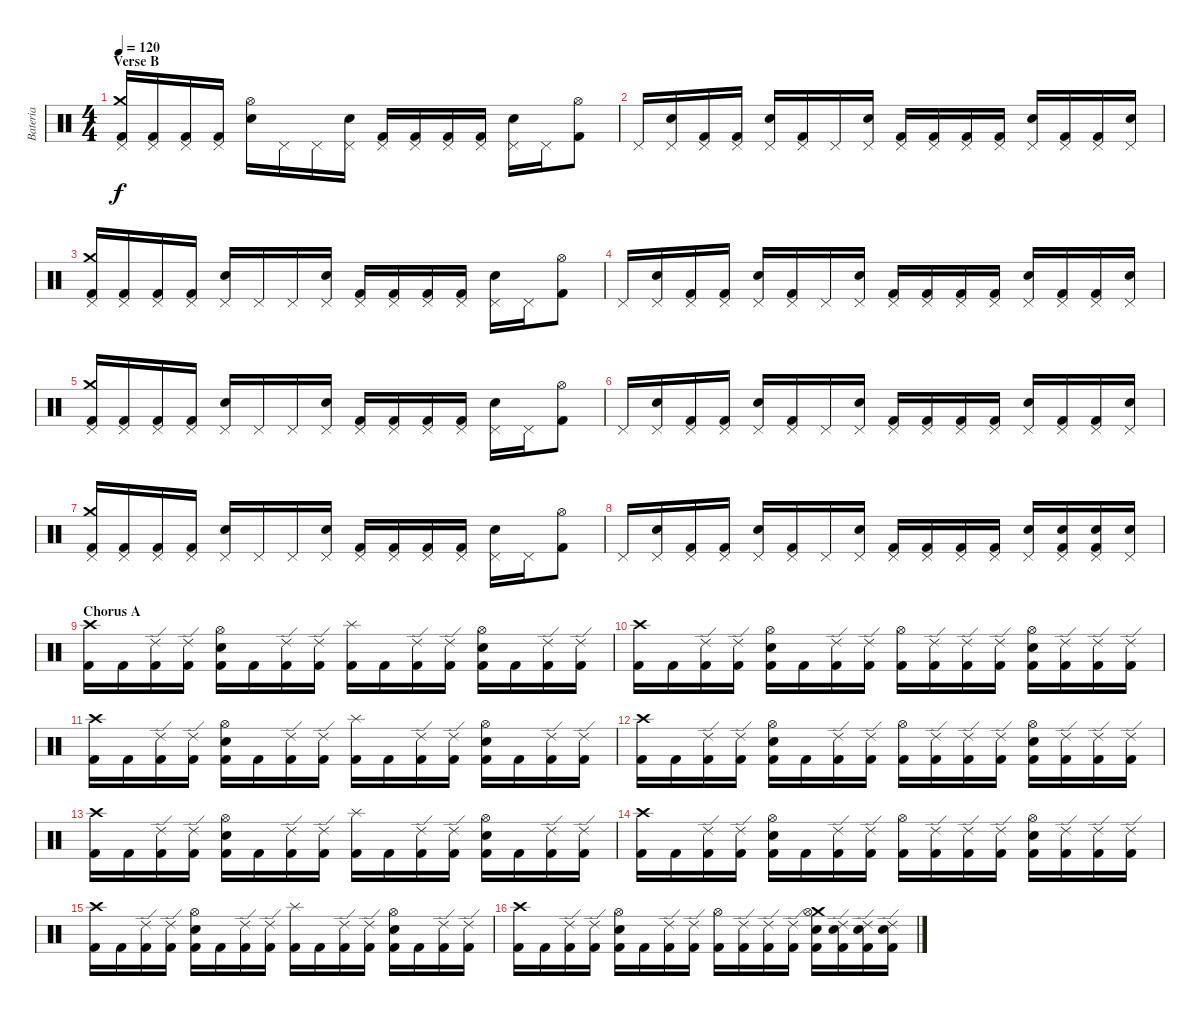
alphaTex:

\track ("Bateria" "Bateria") {instrument percussion}
\staff {score}
\articulation defaults
\ts (4 4)
\section ("" "Verse B")
\tempo 120
\clef neutral
\ks c
("Kick (hit) 2" "Crash medium (hit)" "Pedal Hi-Hat (hit)").16{dy f} ("Kick (hit) 2" "Pedal Hi-Hat (hit)").16 ("Kick (hit) 2" "Pedal Hi-Hat (hit)").16 ("Kick (hit) 2" "Pedal Hi-Hat (hit)").16 ("Snare (hit) 2" "Hi-Hat (open)").16 "Pedal Hi-Hat (hit)".16 "Pedal Hi-Hat (hit)".16 ("Snare (hit) 2" "Pedal Hi-Hat (hit)").16 ("Kick (hit) 2" "Pedal Hi-Hat (hit)").16 ("Kick (hit) 2" "Pedal Hi-Hat (hit)").16 ("Kick (hit) 2" "Pedal Hi-Hat (hit)").16 ("Kick (hit) 2" "Pedal Hi-Hat (hit)").16 ("Snare (hit) 2" "Pedal Hi-Hat (hit)").16 "Pedal Hi-Hat (hit)".16 ("Kick (hit) 2" "Hi-Hat (open)").8 |
"Pedal Hi-Hat (hit)".16 ("Snare (hit) 2" "Pedal Hi-Hat (hit)").16 ("Kick (hit) 2" "Pedal Hi-Hat (hit)").16 ("Kick (hit) 2" "Pedal Hi-Hat (hit)").16 ("Snare (hit) 2" "Pedal Hi-Hat (hit)").16 ("Kick (hit) 2" "Pedal Hi-Hat (hit)").16 "Pedal Hi-Hat (hit)".16 ("Snare (hit) 2" "Pedal Hi-Hat (hit)").16 ("Kick (hit) 2" "Pedal Hi-Hat (hit)").16 ("Kick (hit) 2" "Pedal Hi-Hat (hit)").16 ("Kick (hit) 2" "Pedal Hi-Hat (hit)").16 ("Kick (hit) 2" "Pedal Hi-Hat (hit)").16 ("Snare (hit) 2" "Pedal Hi-Hat (hit)").16 ("Kick (hit) 2" "Pedal Hi-Hat (hit)").16 ("Kick (hit) 2" "Pedal Hi-Hat (hit)").16 ("Snare (hit) 2" "Pedal Hi-Hat (hit)").16 |
("Kick (hit) 2" "Crash medium (hit)" "Pedal Hi-Hat (hit)").16 ("Kick (hit) 2" "Pedal Hi-Hat (hit)").16 ("Kick (hit) 2" "Pedal Hi-Hat (hit)").16 ("Kick (hit) 2" "Pedal Hi-Hat (hit)").16 ("Snare (hit) 2" "Pedal Hi-Hat (hit)").16 "Pedal Hi-Hat (hit)".16 "Pedal Hi-Hat (hit)".16 ("Snare (hit) 2" "Pedal Hi-Hat (hit)").16 ("Kick (hit) 2" "Pedal Hi-Hat (hit)").16 ("Kick (hit) 2" "Pedal Hi-Hat (hit)").16 ("Kick (hit) 2" "Pedal Hi-Hat (hit)").16 ("Kick (hit) 2" "Pedal Hi-Hat (hit)").16 ("Snare (hit) 2" "Pedal Hi-Hat (hit)").16 "Pedal Hi-Hat (hit)".16 ("Kick (hit) 2" "Hi-Hat (open)").8 |
"Pedal Hi-Hat (hit)".16 ("Snare (hit) 2" "Pedal Hi-Hat (hit)").16 ("Kick (hit) 2" "Pedal Hi-Hat (hit)").16 ("Kick (hit) 2" "Pedal Hi-Hat (hit)").16 ("Snare (hit) 2" "Pedal Hi-Hat (hit)").16 ("Kick (hit) 2" "Pedal Hi-Hat (hit)").16 "Pedal Hi-Hat (hit)".16 ("Snare (hit) 2" "Pedal Hi-Hat (hit)").16 ("Kick (hit) 2" "Pedal Hi-Hat (hit)").16 ("Kick (hit) 2" "Pedal Hi-Hat (hit)").16 ("Kick (hit) 2" "Pedal Hi-Hat (hit)").16 ("Kick (hit) 2" "Pedal Hi-Hat (hit)").16 ("Snare (hit) 2" "Pedal Hi-Hat (hit)").16 ("Kick (hit) 2" "Pedal Hi-Hat (hit)").16 ("Kick (hit) 2" "Pedal Hi-Hat (hit)").16 ("Snare (hit) 2" "Pedal Hi-Hat (hit)").16 |
("Kick (hit) 2" "Crash medium (hit)" "Pedal Hi-Hat (hit)").16 ("Kick (hit) 2" "Pedal Hi-Hat (hit)").16 ("Kick (hit) 2" "Pedal Hi-Hat (hit)").16 ("Kick (hit) 2" "Pedal Hi-Hat (hit)").16 ("Snare (hit) 2" "Pedal Hi-Hat (hit)").16 "Pedal Hi-Hat (hit)".16 "Pedal Hi-Hat (hit)".16 ("Snare (hit) 2" "Pedal Hi-Hat (hit)").16 ("Kick (hit) 2" "Pedal Hi-Hat (hit)").16 ("Kick (hit) 2" "Pedal Hi-Hat (hit)").16 ("Kick (hit) 2" "Pedal Hi-Hat (hit)").16 ("Kick (hit) 2" "Pedal Hi-Hat (hit)").16 ("Snare (hit) 2" "Pedal Hi-Hat (hit)").16 "Pedal Hi-Hat (hit)".16 ("Kick (hit) 2" "Hi-Hat (open)").8 |
"Pedal Hi-Hat (hit)".16 ("Snare (hit) 2" "Pedal Hi-Hat (hit)").16 ("Kick (hit) 2" "Pedal Hi-Hat (hit)").16 ("Kick (hit) 2" "Pedal Hi-Hat (hit)").16 ("Snare (hit) 2" "Pedal Hi-Hat (hit)").16 ("Kick (hit) 2" "Pedal Hi-Hat (hit)").16 "Pedal Hi-Hat (hit)".16 ("Snare (hit) 2" "Pedal Hi-Hat (hit)").16 ("Kick (hit) 2" "Pedal Hi-Hat (hit)").16 ("Kick (hit) 2" "Pedal Hi-Hat (hit)").16 ("Kick (hit) 2" "Pedal Hi-Hat (hit)").16 ("Kick (hit) 2" "Pedal Hi-Hat (hit)").16 ("Snare (hit) 2" "Pedal Hi-Hat (hit)").16 ("Kick (hit) 2" "Pedal Hi-Hat (hit)").16 ("Kick (hit) 2" "Pedal Hi-Hat (hit)").16 ("Snare (hit) 2" "Pedal Hi-Hat (hit)").16 |
("Kick (hit) 2" "Crash medium (hit)" "Pedal Hi-Hat (hit)").16 ("Kick (hit) 2" "Pedal Hi-Hat (hit)").16 ("Kick (hit) 2" "Pedal Hi-Hat (hit)").16 ("Kick (hit) 2" "Pedal Hi-Hat (hit)").16 ("Snare (hit) 2" "Pedal Hi-Hat (hit)").16 "Pedal Hi-Hat (hit)".16 "Pedal Hi-Hat (hit)".16 ("Snare (hit) 2" "Pedal Hi-Hat (hit)").16 ("Kick (hit) 2" "Pedal Hi-Hat (hit)").16 ("Kick (hit) 2" "Pedal Hi-Hat (hit)").16 ("Kick (hit) 2" "Pedal Hi-Hat (hit)").16 ("Kick (hit) 2" "Pedal Hi-Hat (hit)").16 ("Snare (hit) 2" "Pedal Hi-Hat (hit)").16 "Pedal Hi-Hat (hit)".16 ("Kick (hit) 2" "Hi-Hat (open)").8 |
"Pedal Hi-Hat (hit)".16 ("Snare (hit) 2" "Pedal Hi-Hat (hit)").16 ("Kick (hit) 2" "Pedal Hi-Hat (hit)").16 ("Kick (hit) 2" "Pedal Hi-Hat (hit)").16 ("Snare (hit) 2" "Pedal Hi-Hat (hit)").16 ("Kick (hit) 2" "Pedal Hi-Hat (hit)").16 "Pedal Hi-Hat (hit)".16 ("Snare (hit) 2" "Pedal Hi-Hat (hit)").16 ("Kick (hit) 2" "Pedal Hi-Hat (hit)").16 ("Kick (hit) 2" "Pedal Hi-Hat (hit)").16 ("Kick (hit) 2" "Pedal Hi-Hat (hit)").16 ("Kick (hit) 2" "Pedal Hi-Hat (hit)").16 ("Snare (hit) 2" "Pedal Hi-Hat (hit)").16 ("Kick (hit) 2" "Snare (hit) 2" "Pedal Hi-Hat (hit)").16 ("Kick (hit) 2" "Snare (hit) 2" "Pedal Hi-Hat (hit)").16 ("Snare (hit) 2" "Pedal Hi-Hat (hit)").16 |
\section ("" "Chorus A")
("Kick (hit) 2" "Crash high (hit)").16 "Kick (hit) 2".16 ("Kick (hit) 2" "Ride (edge) 2").16 ("Kick (hit) 2" "Ride (edge) 2").16 ("Kick (hit) 2" "Snare (hit) 2" "Hi-Hat (open)").16 "Kick (hit) 2".16 ("Kick (hit) 2" "Ride (edge) 2").16 ("Kick (hit) 2" "Ride (edge) 2").16 ("Kick (hit) 2" "Splash (hit)").16 "Kick (hit) 2".16 ("Kick (hit) 2" "Ride (edge) 2").16 ("Kick (hit) 2" "Ride (edge) 2").16 ("Kick (hit) 2" "Snare (hit) 2" "Hi-Hat (open)").16 "Kick (hit) 2".16 ("Kick (hit) 2" "Ride (edge) 2").16 ("Kick (hit) 2" "Ride (edge) 2").16 |
("Kick (hit) 2" "Crash high (hit)").16 "Kick (hit) 2".16 ("Kick (hit) 2" "Ride (edge) 2").16 ("Kick (hit) 2" "Ride (edge) 2").16 ("Kick (hit) 2" "Snare (hit) 2" "Hi-Hat (open)").16 "Kick (hit) 2".16 ("Kick (hit) 2" "Ride (edge) 2").16 ("Kick (hit) 2" "Ride (edge) 2").16 ("Kick (hit) 2" "Hi-Hat (open)").16 ("Kick (hit) 2" "Ride (edge) 2").16 ("Kick (hit) 2" "Ride (edge) 2").16 ("Kick (hit) 2" "Ride (edge) 2").16 ("Kick (hit) 2" "Snare (hit) 2" "Hi-Hat (open)").16 ("Kick (hit) 2" "Ride (edge) 2").16 ("Kick (hit) 2" "Ride (edge) 2").16 ("Kick (hit) 2" "Ride (edge) 2").16 |
("Kick (hit) 2" "Crash high (hit)").16 "Kick (hit) 2".16 ("Kick (hit) 2" "Ride (edge) 2").16 ("Kick (hit) 2" "Ride (edge) 2").16 ("Kick (hit) 2" "Snare (hit) 2" "Hi-Hat (open)").16 "Kick (hit) 2".16 ("Kick (hit) 2" "Ride (edge) 2").16 ("Kick (hit) 2" "Ride (edge) 2").16 ("Kick (hit) 2" "Splash (hit)").16 "Kick (hit) 2".16 ("Kick (hit) 2" "Ride (edge) 2").16 ("Kick (hit) 2" "Ride (edge) 2").16 ("Kick (hit) 2" "Snare (hit) 2" "Hi-Hat (open)").16 "Kick (hit) 2".16 ("Kick (hit) 2" "Ride (edge) 2").16 ("Kick (hit) 2" "Ride (edge) 2").16 |
("Kick (hit) 2" "Crash high (hit)").16 "Kick (hit) 2".16 ("Kick (hit) 2" "Ride (edge) 2").16 ("Kick (hit) 2" "Ride (edge) 2").16 ("Kick (hit) 2" "Snare (hit) 2" "Hi-Hat (open)").16 "Kick (hit) 2".16 ("Kick (hit) 2" "Ride (edge) 2").16 ("Kick (hit) 2" "Ride (edge) 2").16 ("Kick (hit) 2" "Hi-Hat (open)").16 ("Kick (hit) 2" "Ride (edge) 2").16 ("Kick (hit) 2" "Ride (edge) 2").16 ("Kick (hit) 2" "Ride (edge) 2").16 ("Kick (hit) 2" "Snare (hit) 2" "Hi-Hat (open)").16 ("Kick (hit) 2" "Ride (edge) 2").16 ("Kick (hit) 2" "Ride (edge) 2").16 ("Kick (hit) 2" "Ride (edge) 2").16 |
("Kick (hit) 2" "Crash high (hit)").16 "Kick (hit) 2".16 ("Kick (hit) 2" "Ride (edge) 2").16 ("Kick (hit) 2" "Ride (edge) 2").16 ("Kick (hit) 2" "Snare (hit) 2" "Hi-Hat (open)").16 "Kick (hit) 2".16 ("Kick (hit) 2" "Ride (edge) 2").16 ("Kick (hit) 2" "Ride (edge) 2").16 ("Kick (hit) 2" "Splash (hit)").16 "Kick (hit) 2".16 ("Kick (hit) 2" "Ride (edge) 2").16 ("Kick (hit) 2" "Ride (edge) 2").16 ("Kick (hit) 2" "Snare (hit) 2" "Hi-Hat (open)").16 "Kick (hit) 2".16 ("Kick (hit) 2" "Ride (edge) 2").16 ("Kick (hit) 2" "Ride (edge) 2").16 |
("Kick (hit) 2" "Crash high (hit)").16 "Kick (hit) 2".16 ("Kick (hit) 2" "Ride (edge) 2").16 ("Kick (hit) 2" "Ride (edge) 2").16 ("Kick (hit) 2" "Snare (hit) 2" "Hi-Hat (open)").16 "Kick (hit) 2".16 ("Kick (hit) 2" "Ride (edge) 2").16 ("Kick (hit) 2" "Ride (edge) 2").16 ("Kick (hit) 2" "Hi-Hat (open)").16 ("Kick (hit) 2" "Ride (edge) 2").16 ("Kick (hit) 2" "Ride (edge) 2").16 ("Kick (hit) 2" "Ride (edge) 2").16 ("Kick (hit) 2" "Snare (hit) 2" "Hi-Hat (open)").16 ("Kick (hit) 2" "Ride (edge) 2").16 ("Kick (hit) 2" "Ride (edge) 2").16 ("Kick (hit) 2" "Ride (edge) 2").16 |
("Kick (hit) 2" "Crash high (hit)").16 "Kick (hit) 2".16 ("Kick (hit) 2" "Ride (edge) 2").16 ("Kick (hit) 2" "Ride (edge) 2").16 ("Kick (hit) 2" "Snare (hit) 2" "Hi-Hat (open)").16 "Kick (hit) 2".16 ("Kick (hit) 2" "Ride (edge) 2").16 ("Kick (hit) 2" "Ride (edge) 2").16 ("Kick (hit) 2" "Splash (hit)").16 "Kick (hit) 2".16 ("Kick (hit) 2" "Ride (edge) 2").16 ("Kick (hit) 2" "Ride (edge) 2").16 ("Kick (hit) 2" "Snare (hit) 2" "Hi-Hat (open)").16 "Kick (hit) 2".16 ("Kick (hit) 2" "Ride (edge) 2").16 ("Kick (hit) 2" "Ride (edge) 2").16 |
("Kick (hit) 2" "Crash high (hit)").16 "Kick (hit) 2".16 ("Kick (hit) 2" "Ride (edge) 2").16 ("Kick (hit) 2" "Ride (edge) 2").16 ("Kick (hit) 2" "Snare (hit) 2" "Hi-Hat (open)").16 "Kick (hit) 2".16 ("Kick (hit) 2" "Ride (edge) 2").16 ("Kick (hit) 2" "Ride (edge) 2").16 ("Kick (hit) 2" "Hi-Hat (open)").16 ("Kick (hit) 2" "Ride (edge) 2").16 ("Kick (hit) 2" "Ride (edge) 2").16 ("Kick (hit) 2" "Ride (edge) 2").16 ("Kick (hit) 2" "Crash medium (hit)" "Snare (hit) 2" "Hi-Hat (open)").16 ("Kick (hit) 2" "Snare (hit) 2" "Ride (edge) 2").16 ("Kick (hit) 2" "Snare (hit) 2" "Ride (edge) 2").16 ("Kick (hit) 2" "Snare (hit) 2" "Ride (edge) 2").16
